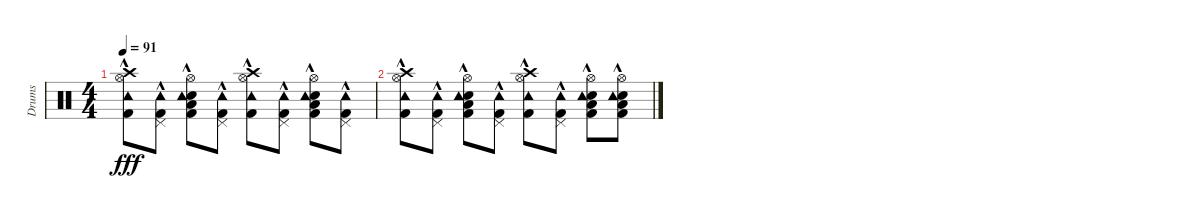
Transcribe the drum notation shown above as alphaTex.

\track ("Drums" "Drums") {instrument percussion}
\staff {score}
\articulation defaults
\ts (4 4)
\tempo 91
\clef neutral
\ks c
("Crash high (hit)"{hac} "Hi-Hat (open)"{hac} "Kick (hit) 2"{hac} "Tambourine (hit)"{hac}).8{dy fff} ("Pedal Hi-Hat (hit)" "Kick (hit) 2"{hac} "Tambourine (hit)"{hac}).8 ("Hand Clap (hit)"{hac} "Hi-Hat (open)"{hac} "Low Floor Tom (hit)"{hac} "Kick (hit) 2"{hac} "Tambourine (hit)"{hac}).8 ("Pedal Hi-Hat (hit)" "Kick (hit) 2"{hac} "Tambourine (hit)"{hac}).8 ("Crash high (hit)"{hac} "Hi-Hat (open)"{hac} "Kick (hit) 2"{hac} "Tambourine (hit)"{hac}).8 ("Pedal Hi-Hat (hit)" "Kick (hit) 2"{hac} "Tambourine (hit)"{hac}).8 ("Hand Clap (hit)"{hac} "Hi-Hat (open)"{hac} "Low Floor Tom (hit)"{hac} "Kick (hit) 2"{hac} "Tambourine (hit)"{hac}).8 ("Pedal Hi-Hat (hit)" "Kick (hit) 2"{hac} "Tambourine (hit)"{hac}).8 |
("Crash high (hit)"{hac} "Hi-Hat (open)"{hac} "Kick (hit) 2"{hac} "Tambourine (hit)"{hac}).8 ("Pedal Hi-Hat (hit)" "Kick (hit) 2"{hac} "Tambourine (hit)"{hac}).8 ("Hand Clap (hit)"{hac} "Hi-Hat (open)"{hac} "Low Floor Tom (hit)"{hac} "Kick (hit) 2"{hac} "Tambourine (hit)"{hac}).8 ("Pedal Hi-Hat (hit)" "Kick (hit) 2"{hac} "Tambourine (hit)"{hac}).8 ("Crash high (hit)"{hac} "Hi-Hat (open)"{hac} "Kick (hit) 2"{hac} "Tambourine (hit)"{hac}).8 ("Pedal Hi-Hat (hit)" "Kick (hit) 2"{hac} "Tambourine (hit)"{hac}).8 ("Hand Clap (hit)"{hac} "Hi-Hat (open)"{hac} "Low Floor Tom (hit)"{hac} "Kick (hit) 2"{hac} "Tambourine (hit)"{hac}).8 ("Hand Clap (hit)"{hac} "Hi-Hat (open)"{hac} "Low Floor Tom (hit)"{hac} "Kick (hit) 2"{hac} "Tambourine (hit)"{hac}).8
